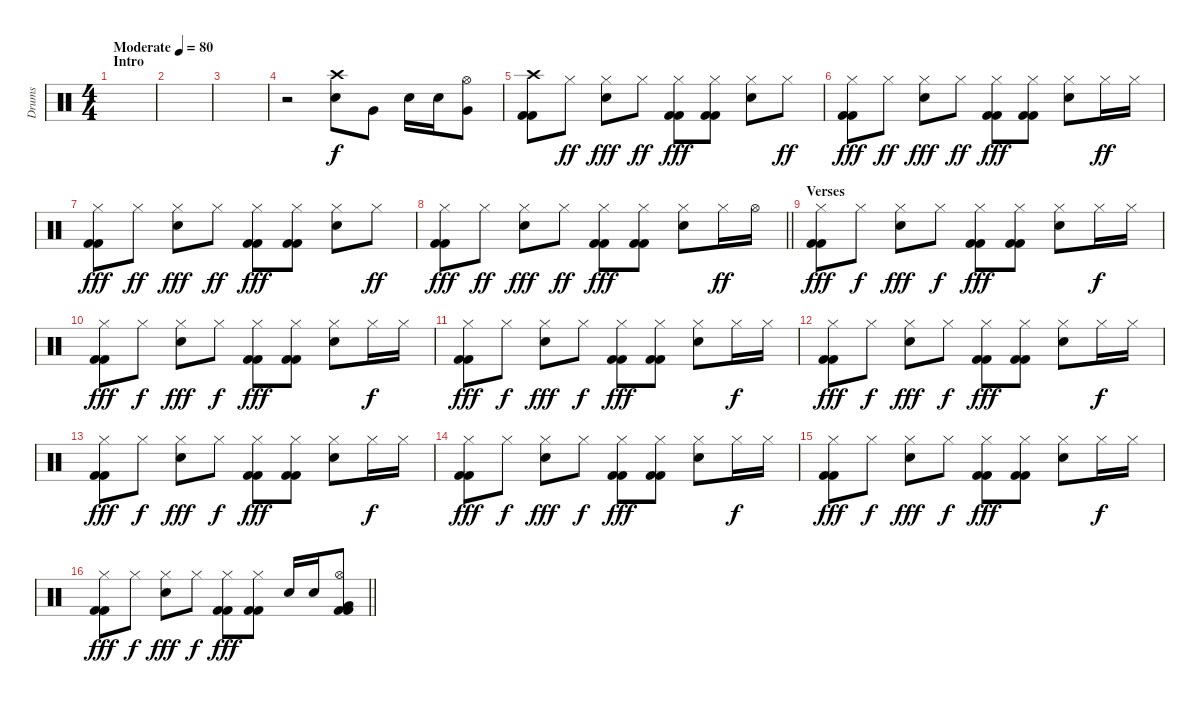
\track ("Drums" "Drums") {instrument percussion}
\staff {score}
\articulation defaults
\ts (4 4)
\section ("" "Intro")
\tempo (80 "Moderate")
\clef neutral
\ks c
|
|
|
r.2 ("Crash high (hit)" "Electric Snare (hit)").8 "Very Low Tom (hit)".8 "Electric Snare (hit)".16 "Electric Snare (hit)".16 ("Hi-Hat (open)" "Very Low Tom (hit)").8 |
("Crash high (hit)" "Kick (hit) 2" "Kick (hit) 2").8 "Hi-Hat (closed)".8{dy ff} ("Hi-Hat (closed)" "Electric Snare (hit)").8{dy fff} "Hi-Hat (closed)".8{dy ff} ("Hi-Hat (closed)" "Kick (hit) 2" "Kick (hit) 2").8{dy fff} ("Hi-Hat (closed)" "Kick (hit) 2" "Kick (hit) 2").8 ("Hi-Hat (closed)" "Electric Snare (hit)").8 "Hi-Hat (closed)".8{dy ff} |
("Hi-Hat (closed)" "Kick (hit) 2" "Kick (hit) 2").8{dy fff} "Hi-Hat (closed)".8{dy ff} ("Hi-Hat (closed)" "Electric Snare (hit)").8{dy fff} "Hi-Hat (closed)".8{dy ff} ("Hi-Hat (closed)" "Kick (hit) 2" "Kick (hit) 2").8{dy fff} ("Hi-Hat (closed)" "Kick (hit) 2" "Kick (hit) 2").8 ("Hi-Hat (closed)" "Electric Snare (hit)").8 "Hi-Hat (closed)".16{dy ff} "Hi-Hat (closed)".16 |
("Hi-Hat (closed)" "Kick (hit) 2" "Kick (hit) 2").8{dy fff} "Hi-Hat (closed)".8{dy ff} ("Hi-Hat (closed)" "Electric Snare (hit)").8{dy fff} "Hi-Hat (closed)".8{dy ff} ("Hi-Hat (closed)" "Kick (hit) 2" "Kick (hit) 2").8{dy fff} ("Hi-Hat (closed)" "Kick (hit) 2" "Kick (hit) 2").8 ("Hi-Hat (closed)" "Electric Snare (hit)").8 "Hi-Hat (closed)".8{dy ff} |
\barLineRight lightlight
("Hi-Hat (closed)" "Kick (hit) 2" "Kick (hit) 2").8{dy fff} "Hi-Hat (closed)".8{dy ff} ("Hi-Hat (closed)" "Electric Snare (hit)").8{dy fff} "Hi-Hat (closed)".8{dy ff} ("Hi-Hat (closed)" "Kick (hit) 2" "Kick (hit) 2").8{dy fff} ("Hi-Hat (closed)" "Kick (hit) 2" "Kick (hit) 2").8 ("Hi-Hat (closed)" "Electric Snare (hit)").8 "Hi-Hat (closed)".16{dy ff} "Hi-Hat (open)".16 |
\section ("" "Verses")
("Hi-Hat (closed)" "Kick (hit) 2" "Kick (hit) 2").8{dy fff} "Hi-Hat (closed)".8{dy f} ("Hi-Hat (closed)" "Electric Snare (hit)").8{dy fff} "Hi-Hat (closed)".8{dy f} ("Hi-Hat (closed)" "Kick (hit) 2" "Kick (hit) 2").8{dy fff} ("Hi-Hat (closed)" "Kick (hit) 2" "Kick (hit) 2").8 ("Hi-Hat (closed)" "Electric Snare (hit)").8 "Hi-Hat (closed)".16{dy f} "Hi-Hat (closed)".16 |
("Hi-Hat (closed)" "Kick (hit) 2" "Kick (hit) 2").8{dy fff} "Hi-Hat (closed)".8{dy f} ("Hi-Hat (closed)" "Electric Snare (hit)").8{dy fff} "Hi-Hat (closed)".8{dy f} ("Hi-Hat (closed)" "Kick (hit) 2" "Kick (hit) 2").8{dy fff} ("Hi-Hat (closed)" "Kick (hit) 2" "Kick (hit) 2").8 ("Hi-Hat (closed)" "Electric Snare (hit)").8 "Hi-Hat (closed)".16{dy f} "Hi-Hat (closed)".16 |
("Hi-Hat (closed)" "Kick (hit) 2" "Kick (hit) 2").8{dy fff} "Hi-Hat (closed)".8{dy f} ("Hi-Hat (closed)" "Electric Snare (hit)").8{dy fff} "Hi-Hat (closed)".8{dy f} ("Hi-Hat (closed)" "Kick (hit) 2" "Kick (hit) 2").8{dy fff} ("Hi-Hat (closed)" "Kick (hit) 2" "Kick (hit) 2").8 ("Hi-Hat (closed)" "Electric Snare (hit)").8 "Hi-Hat (closed)".16{dy f} "Hi-Hat (closed)".16 |
("Hi-Hat (closed)" "Kick (hit) 2" "Kick (hit) 2").8{dy fff} "Hi-Hat (closed)".8{dy f} ("Hi-Hat (closed)" "Electric Snare (hit)").8{dy fff} "Hi-Hat (closed)".8{dy f} ("Hi-Hat (closed)" "Kick (hit) 2" "Kick (hit) 2").8{dy fff} ("Hi-Hat (closed)" "Kick (hit) 2" "Kick (hit) 2").8 ("Hi-Hat (closed)" "Electric Snare (hit)").8 "Hi-Hat (closed)".16{dy f} "Hi-Hat (closed)".16 |
("Hi-Hat (closed)" "Kick (hit) 2" "Kick (hit) 2").8{dy fff} "Hi-Hat (closed)".8{dy f} ("Hi-Hat (closed)" "Electric Snare (hit)").8{dy fff} "Hi-Hat (closed)".8{dy f} ("Hi-Hat (closed)" "Kick (hit) 2" "Kick (hit) 2").8{dy fff} ("Hi-Hat (closed)" "Kick (hit) 2" "Kick (hit) 2").8 ("Hi-Hat (closed)" "Electric Snare (hit)").8 "Hi-Hat (closed)".16{dy f} "Hi-Hat (closed)".16 |
("Hi-Hat (closed)" "Kick (hit) 2" "Kick (hit) 2").8{dy fff} "Hi-Hat (closed)".8{dy f} ("Hi-Hat (closed)" "Electric Snare (hit)").8{dy fff} "Hi-Hat (closed)".8{dy f} ("Hi-Hat (closed)" "Kick (hit) 2" "Kick (hit) 2").8{dy fff} ("Hi-Hat (closed)" "Kick (hit) 2" "Kick (hit) 2").8 ("Hi-Hat (closed)" "Electric Snare (hit)").8 "Hi-Hat (closed)".16{dy f} "Hi-Hat (closed)".16 |
("Hi-Hat (closed)" "Kick (hit) 2" "Kick (hit) 2").8{dy fff} "Hi-Hat (closed)".8{dy f} ("Hi-Hat (closed)" "Electric Snare (hit)").8{dy fff} "Hi-Hat (closed)".8{dy f} ("Hi-Hat (closed)" "Kick (hit) 2" "Kick (hit) 2").8{dy fff} ("Hi-Hat (closed)" "Kick (hit) 2" "Kick (hit) 2").8 ("Hi-Hat (closed)" "Electric Snare (hit)").8 "Hi-Hat (closed)".16{dy f} "Hi-Hat (closed)".16 |
\barLineRight lightlight
("Hi-Hat (closed)" "Kick (hit) 2" "Kick (hit) 2").8{dy fff} "Hi-Hat (closed)".8{dy f} ("Hi-Hat (closed)" "Electric Snare (hit)").8{dy fff} "Hi-Hat (closed)".8{dy f} ("Hi-Hat (closed)" "Kick (hit) 2" "Kick (hit) 2").8{dy fff} ("Hi-Hat (closed)" "Kick (hit) 2" "Kick (hit) 2").8 "Electric Snare (hit)".16 "Electric Snare (hit)".16 ("Hi-Hat (open)" "Very Low Tom (hit)" "Kick (hit) 2" "Kick (hit) 2").8
